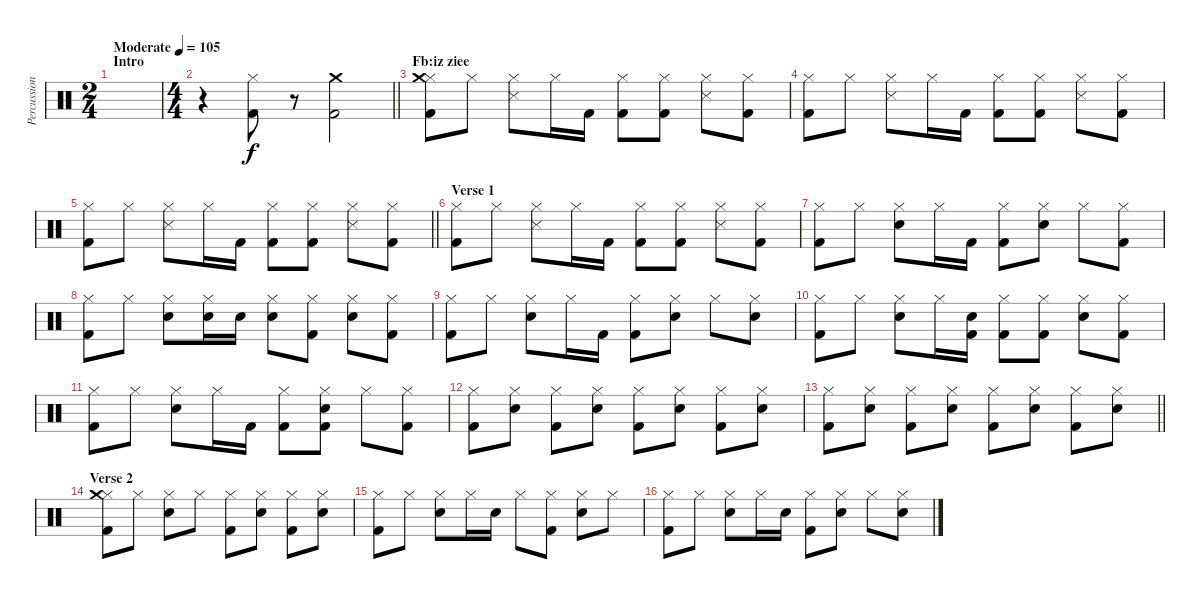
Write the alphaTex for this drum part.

\track ("Percussion" "Percussion") {instrument percussion}
\staff {score}
\articulation defaults
\ts (2 4)
\section ("" "Intro")
\tempo (105 "Moderate")
\clef neutral
\ks c
|
\ts (4 4)
\barLineRight lightlight
r.4 ("Hi-Hat (closed)" "Kick (hit) 2").8 r.8 ("Crash medium (hit)" "Kick (hit) 2").2 |
\section ("" "Fb:iz ziee")
("Hi-Hat (closed)" "Crash medium (hit)" "Kick (hit) 2").8 "Hi-Hat (closed)".8 ("Hi-Hat (closed)" "Snare (side stick) 3").8 "Hi-Hat (closed)".16 "Kick (hit) 2".16 ("Hi-Hat (closed)" "Kick (hit) 2").8 ("Hi-Hat (closed)" "Kick (hit) 2").8 ("Hi-Hat (closed)" "Snare (side stick) 3").8 ("Hi-Hat (closed)" "Kick (hit) 2").8 |
("Hi-Hat (closed)" "Kick (hit) 2").8 "Hi-Hat (closed)".8 ("Hi-Hat (closed)" "Snare (side stick) 3").8 "Hi-Hat (closed)".16 "Kick (hit) 2".16 ("Hi-Hat (closed)" "Kick (hit) 2").8 ("Hi-Hat (closed)" "Kick (hit) 2").8 ("Hi-Hat (closed)" "Snare (side stick) 3").8 ("Hi-Hat (closed)" "Kick (hit) 2").8 |
\barLineRight lightlight
("Hi-Hat (closed)" "Kick (hit) 2").8 "Hi-Hat (closed)".8 ("Hi-Hat (closed)" "Snare (side stick) 3").8 "Hi-Hat (closed)".16 "Kick (hit) 2".16 ("Hi-Hat (closed)" "Kick (hit) 2").8 ("Hi-Hat (closed)" "Kick (hit) 2").8 ("Hi-Hat (closed)" "Snare (side stick) 3").8 ("Hi-Hat (closed)" "Kick (hit) 2").8 |
\section ("" "Verse 1")
("Hi-Hat (closed)" "Kick (hit) 2").8 "Hi-Hat (closed)".8 ("Hi-Hat (closed)" "Snare (side stick) 3").8 "Hi-Hat (closed)".16 "Kick (hit) 2".16 ("Hi-Hat (closed)" "Kick (hit) 2").8 ("Hi-Hat (closed)" "Kick (hit) 2").8 ("Hi-Hat (closed)" "Snare (side stick) 3").8 ("Hi-Hat (closed)" "Kick (hit) 2").8 |
("Hi-Hat (closed)" "Kick (hit) 2").8 "Hi-Hat (closed)".8 ("Hi-Hat (closed)" "Electric Snare (hit)").8 "Hi-Hat (closed)".16 "Kick (hit) 2".16 ("Hi-Hat (closed)" "Kick (hit) 2").8 ("Hi-Hat (closed)" "Electric Snare (hit)").8 "Hi-Hat (closed)".8 ("Hi-Hat (closed)" "Kick (hit) 2").8 |
("Hi-Hat (closed)" "Kick (hit) 2").8 "Hi-Hat (closed)".8 ("Hi-Hat (closed)" "Electric Snare (hit)").8 ("Hi-Hat (closed)" "Electric Snare (hit)").16 "Electric Snare (hit)".16 ("Hi-Hat (closed)" "Electric Snare (hit)").8 ("Hi-Hat (closed)" "Kick (hit) 2").8 ("Hi-Hat (closed)" "Electric Snare (hit)").8 ("Hi-Hat (closed)" "Kick (hit) 2").8 |
("Hi-Hat (closed)" "Kick (hit) 2").8 "Hi-Hat (closed)".8 ("Hi-Hat (closed)" "Electric Snare (hit)").8 "Hi-Hat (closed)".16 "Kick (hit) 2".16 ("Hi-Hat (closed)" "Kick (hit) 2").8 ("Hi-Hat (closed)" "Electric Snare (hit)").8 "Hi-Hat (closed)".8 ("Hi-Hat (closed)" "Electric Snare (hit)").8 |
("Hi-Hat (closed)" "Kick (hit) 2").8 "Hi-Hat (closed)".8 ("Hi-Hat (closed)" "Electric Snare (hit)").8 "Hi-Hat (closed)".16 ("Electric Snare (hit)" "Kick (hit) 2").16 ("Hi-Hat (closed)" "Kick (hit) 2").8 ("Hi-Hat (closed)" "Kick (hit) 2").8 ("Hi-Hat (closed)" "Electric Snare (hit)").8 ("Hi-Hat (closed)" "Kick (hit) 2").8 |
("Hi-Hat (closed)" "Kick (hit) 2").8 "Hi-Hat (closed)".8 ("Hi-Hat (closed)" "Electric Snare (hit)").8 "Hi-Hat (closed)".16 "Kick (hit) 2".16 ("Hi-Hat (closed)" "Kick (hit) 2").8 ("Hi-Hat (closed)" "Electric Snare (hit)" "Kick (hit) 2").8 "Hi-Hat (closed)".8 ("Hi-Hat (closed)" "Kick (hit) 2").8 |
("Hi-Hat (closed)" "Kick (hit) 2").8 ("Hi-Hat (closed)" "Electric Snare (hit)").8 ("Hi-Hat (closed)" "Kick (hit) 2").8 ("Hi-Hat (closed)" "Electric Snare (hit)").8 ("Hi-Hat (closed)" "Kick (hit) 2").8 ("Hi-Hat (closed)" "Electric Snare (hit)").8 ("Hi-Hat (closed)" "Kick (hit) 2").8 ("Hi-Hat (closed)" "Electric Snare (hit)").8 |
\barLineRight lightlight
("Hi-Hat (closed)" "Kick (hit) 2").8 ("Hi-Hat (closed)" "Electric Snare (hit)").8 ("Hi-Hat (closed)" "Kick (hit) 2").8 ("Hi-Hat (closed)" "Electric Snare (hit)").8 ("Hi-Hat (closed)" "Kick (hit) 2").8 ("Hi-Hat (closed)" "Electric Snare (hit)").8 ("Hi-Hat (closed)" "Kick (hit) 2").8 ("Hi-Hat (closed)" "Electric Snare (hit)").8 |
\section ("" "Verse 2")
("Hi-Hat (closed)" "Crash medium (hit)" "Kick (hit) 2").8 "Hi-Hat (closed)".8 ("Hi-Hat (closed)" "Electric Snare (hit)").8 "Hi-Hat (closed)".8 ("Hi-Hat (closed)" "Kick (hit) 2").8 ("Hi-Hat (closed)" "Electric Snare (hit)").8 ("Hi-Hat (closed)" "Kick (hit) 2").8 ("Hi-Hat (closed)" "Electric Snare (hit)").8 |
("Hi-Hat (closed)" "Kick (hit) 2").8 "Hi-Hat (closed)".8 ("Hi-Hat (closed)" "Electric Snare (hit)").8 "Hi-Hat (closed)".16 "Electric Snare (hit)".16 "Hi-Hat (closed)".8 ("Hi-Hat (closed)" "Kick (hit) 2").8 ("Hi-Hat (closed)" "Electric Snare (hit)").8 "Hi-Hat (closed)".8 |
("Hi-Hat (closed)" "Kick (hit) 2").8 "Hi-Hat (closed)".8 ("Hi-Hat (closed)" "Electric Snare (hit)").8 "Hi-Hat (closed)".16 "Electric Snare (hit)".16 ("Hi-Hat (closed)" "Kick (hit) 2").8 ("Hi-Hat (closed)" "Electric Snare (hit)").8 "Hi-Hat (closed)".8 ("Hi-Hat (closed)" "Electric Snare (hit)").8
